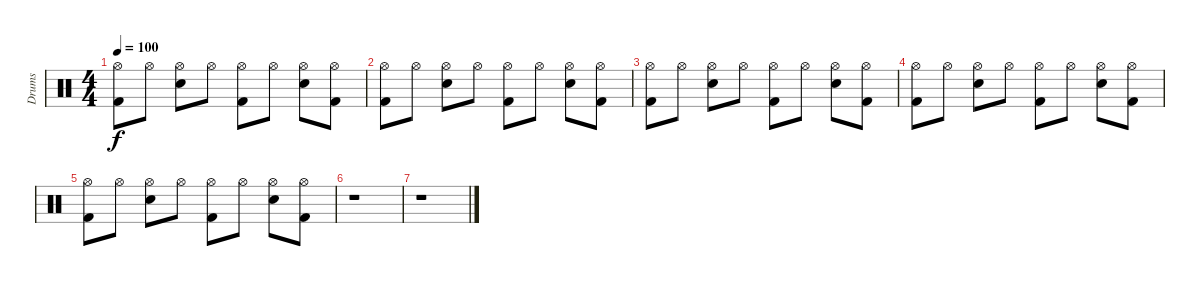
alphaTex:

\track ("Drums" "Drums") {instrument percussion}
\staff {score}
\articulation defaults
\ts (4 4)
\tempo 100
\clef neutral
\ks c
("Hi-Hat (open)" "Kick (hit) 2").8{dy f} "Hi-Hat (open)".8 ("Hi-Hat (open)" "Snare (hit) 2").8 "Hi-Hat (open)".8 ("Hi-Hat (open)" "Kick (hit) 2").8 "Hi-Hat (open)".8 ("Hi-Hat (open)" "Snare (hit) 2").8 ("Hi-Hat (open)" "Kick (hit) 2").8 |
("Hi-Hat (open)" "Kick (hit) 2").8 "Hi-Hat (open)".8 ("Hi-Hat (open)" "Snare (hit) 2").8 "Hi-Hat (open)".8 ("Hi-Hat (open)" "Kick (hit) 2").8 "Hi-Hat (open)".8 ("Hi-Hat (open)" "Snare (hit) 2").8 ("Hi-Hat (open)" "Kick (hit) 2").8 |
("Hi-Hat (open)" "Kick (hit) 2").8 "Hi-Hat (open)".8 ("Hi-Hat (open)" "Snare (hit) 2").8 "Hi-Hat (open)".8 ("Hi-Hat (open)" "Kick (hit) 2").8 "Hi-Hat (open)".8 ("Hi-Hat (open)" "Snare (hit) 2").8 ("Hi-Hat (open)" "Kick (hit) 2").8 |
("Hi-Hat (open)" "Kick (hit) 2").8 "Hi-Hat (open)".8 ("Hi-Hat (open)" "Snare (hit) 2").8 "Hi-Hat (open)".8 ("Hi-Hat (open)" "Kick (hit) 2").8 "Hi-Hat (open)".8 ("Hi-Hat (open)" "Snare (hit) 2").8 ("Hi-Hat (open)" "Kick (hit) 2").8 |
("Hi-Hat (open)" "Kick (hit) 2").8 "Hi-Hat (open)".8 ("Hi-Hat (open)" "Snare (hit) 2").8 "Hi-Hat (open)".8 ("Hi-Hat (open)" "Kick (hit) 2").8 "Hi-Hat (open)".8 ("Hi-Hat (open)" "Snare (hit) 2").8 ("Hi-Hat (open)" "Kick (hit) 2").8 |
r.1 |
r.1
